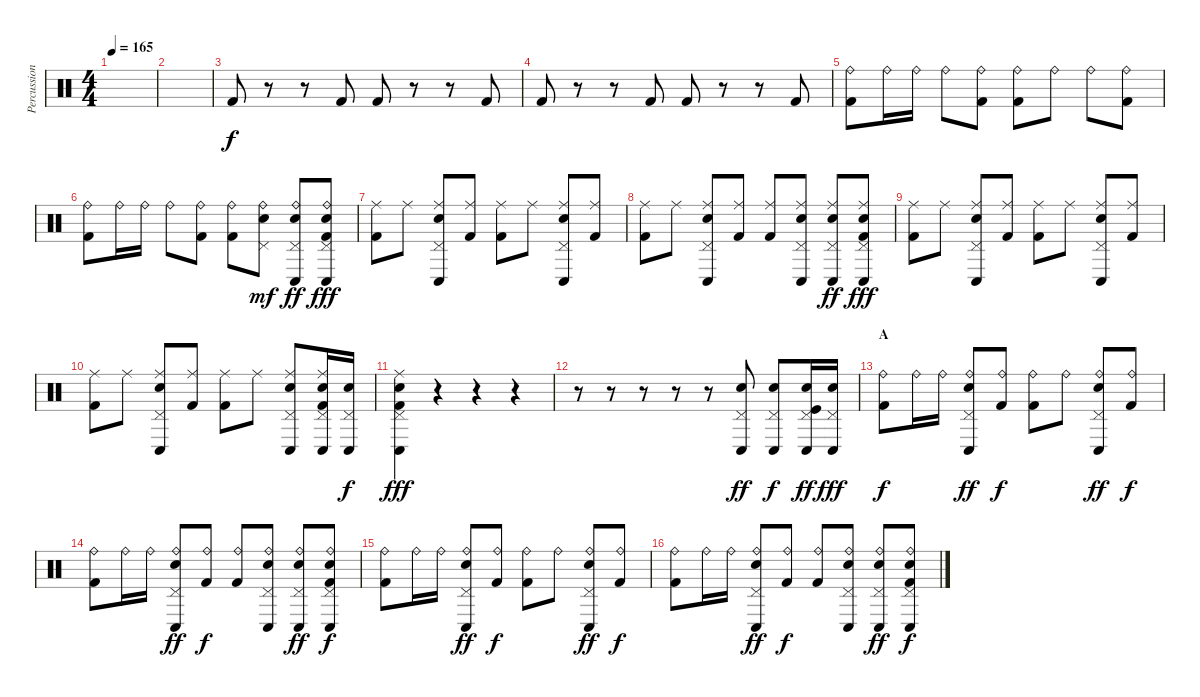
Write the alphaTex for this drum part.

\track ("Percussion" "Percussion") {instrument percussion}
\staff {score}
\articulation defaults
\ts (4 4)
\tempo 165
\clef neutral
\ks c
|
|
"Kick (hit) 2".8 r.8 r.8 "Kick (hit) 2".8 "Kick (hit) 2".8 r.8 r.8 "Kick (hit) 2".8 |
"Kick (hit) 2".8 r.8 r.8 "Kick (hit) 2".8 "Kick (hit) 2".8 r.8 r.8 "Kick (hit) 2".8 |
("Ride (bell)" "Kick (hit) 2").8 "Ride (bell)".16 "Ride (bell)".16 "Ride (bell)".8 ("Ride (bell)" "Kick (hit) 2").8 ("Ride (bell)" "Kick (hit) 2").8 "Ride (bell)".8 "Ride (bell)".8 ("Ride (bell)" "Kick (hit) 2").8 |
("Ride (bell)" "Kick (hit) 2").8 "Ride (bell)".16 "Ride (bell)".16 "Ride (bell)".8 ("Ride (bell)" "Kick (hit) 2").8 ("Ride (bell)" "Kick (hit) 2").8 ("Ride (bell)" "Pedal Hi-Hat (hit)" "Electric Snare (hit)").8{dy mf} ("Ride (bell)" "Pedal Hi-Hat (hit)" "Conga low (hit)" "Electric Snare (hit)").8{dy ff} ("Ride (bell)" "Pedal Hi-Hat (hit)" "Conga low (hit)" "Electric Snare (hit)" "Kick (hit) 2").8{dy fff} |
("Ride (middle)" "Kick (hit) 2").8 "Ride (middle)".8 ("Ride (middle)" "Pedal Hi-Hat (hit)" "Conga low (hit)" "Electric Snare (hit)").8 ("Ride (middle)" "Kick (hit) 2").8 ("Ride (middle)" "Kick (hit) 2").8 "Ride (middle)".8 ("Ride (middle)" "Pedal Hi-Hat (hit)" "Conga low (hit)" "Electric Snare (hit)").8 ("Ride (middle)" "Kick (hit) 2").8 |
("Ride (middle)" "Kick (hit) 2").8 "Ride (middle)".8 ("Ride (middle)" "Pedal Hi-Hat (hit)" "Conga low (hit)" "Electric Snare (hit)").8 ("Ride (middle)" "Kick (hit) 2").8 ("Ride (middle)" "Kick (hit) 2").8 ("Ride (middle)" "Pedal Hi-Hat (hit)" "Conga low (hit)" "Electric Snare (hit)").8 ("Ride (middle)" "Pedal Hi-Hat (hit)" "Conga low (hit)" "Electric Snare (hit)").8{dy ff} ("Ride (middle)" "Pedal Hi-Hat (hit)" "Conga low (hit)" "Electric Snare (hit)" "Kick (hit) 2").8{dy fff} |
("Ride (middle)" "Kick (hit) 2").8 "Ride (middle)".8 ("Ride (middle)" "Pedal Hi-Hat (hit)" "Conga low (hit)" "Electric Snare (hit)").8 ("Ride (middle)" "Kick (hit) 2").8 ("Ride (middle)" "Kick (hit) 2").8 "Ride (middle)".8 ("Ride (middle)" "Pedal Hi-Hat (hit)" "Conga low (hit)" "Electric Snare (hit)").8 ("Ride (middle)" "Kick (hit) 2").8 |
("Ride (middle)" "Kick (hit) 2").8 "Ride (middle)".8 ("Ride (middle)" "Pedal Hi-Hat (hit)" "Conga low (hit)" "Electric Snare (hit)").8 ("Ride (middle)" "Kick (hit) 2").8 ("Ride (middle)" "Kick (hit) 2").8 "Ride (middle)".8 ("Ride (middle)" "Pedal Hi-Hat (hit)" "Conga low (hit)" "Electric Snare (hit)").8 ("Ride (middle)" "Pedal Hi-Hat (hit)" "Conga low (hit)" "Electric Snare (hit)" "Kick (hit) 2").16 ("Pedal Hi-Hat (hit)" "Conga low (hit)" "Electric Snare (hit)").16{dy f} |
("Ride (middle)" "Pedal Hi-Hat (hit)" "Conga low (hit)" "Electric Snare (hit)" "Kick (hit) 2").4{dy fff} r.4 r.4 r.4 |
r.8 r.8 r.8 r.8 r.8 ("Pedal Hi-Hat (hit)" "Conga low (hit)" "Electric Snare (hit)").8{dy ff} ("Pedal Hi-Hat (hit)" "Conga low (hit)" "Electric Snare (hit)").8{dy f} ("Pedal Hi-Hat (hit)" "Conga low (hit)" "Electric Snare (hit)" "Kick (hit)").16{dy ff} ("Pedal Hi-Hat (hit)" "Conga low (hit)" "Electric Snare (hit)").16{dy fff} |
\section ("" "A")
("Ride (bell)" "Kick (hit) 2").8{dy f} "Ride (bell)".16 "Ride (bell)".16 ("Ride (bell)" "Pedal Hi-Hat (hit)" "Conga low (hit)" "Electric Snare (hit)").8{dy ff} ("Ride (bell)" "Kick (hit) 2").8{dy f} ("Ride (bell)" "Kick (hit) 2").8 "Ride (bell)".8 ("Ride (bell)" "Pedal Hi-Hat (hit)" "Conga low (hit)" "Electric Snare (hit)").8{dy ff} ("Ride (bell)" "Kick (hit) 2").8{dy f} |
("Ride (bell)" "Kick (hit) 2").8 "Ride (bell)".16 "Ride (bell)".16 ("Ride (bell)" "Pedal Hi-Hat (hit)" "Conga low (hit)" "Electric Snare (hit)").8{dy ff} ("Ride (bell)" "Kick (hit) 2").8{dy f} ("Ride (bell)" "Kick (hit) 2").8 ("Ride (bell)" "Pedal Hi-Hat (hit)" "Conga low (hit)" "Electric Snare (hit)").8 ("Ride (bell)" "Pedal Hi-Hat (hit)" "Conga low (hit)" "Electric Snare (hit)").8{dy ff} ("Ride (bell)" "Pedal Hi-Hat (hit)" "Conga low (hit)" "Electric Snare (hit)" "Kick (hit) 2").8{dy f} |
("Ride (bell)" "Kick (hit) 2").8 "Ride (bell)".16 "Ride (bell)".16 ("Ride (bell)" "Pedal Hi-Hat (hit)" "Conga low (hit)" "Electric Snare (hit)").8{dy ff} ("Ride (bell)" "Kick (hit) 2").8{dy f} ("Ride (bell)" "Kick (hit) 2").8 "Ride (bell)".8 ("Ride (bell)" "Pedal Hi-Hat (hit)" "Conga low (hit)" "Electric Snare (hit)").8{dy ff} ("Ride (bell)" "Kick (hit) 2").8{dy f} |
("Ride (bell)" "Kick (hit) 2").8 "Ride (bell)".16 "Ride (bell)".16 ("Ride (bell)" "Pedal Hi-Hat (hit)" "Conga low (hit)" "Electric Snare (hit)").8{dy ff} ("Ride (bell)" "Kick (hit) 2").8{dy f} ("Ride (bell)" "Kick (hit) 2").8 ("Ride (bell)" "Pedal Hi-Hat (hit)" "Conga low (hit)" "Electric Snare (hit)").8 ("Ride (bell)" "Pedal Hi-Hat (hit)" "Conga low (hit)" "Electric Snare (hit)").8{dy ff} ("Ride (bell)" "Pedal Hi-Hat (hit)" "Conga low (hit)" "Electric Snare (hit)" "Kick (hit) 2").8{dy f}
